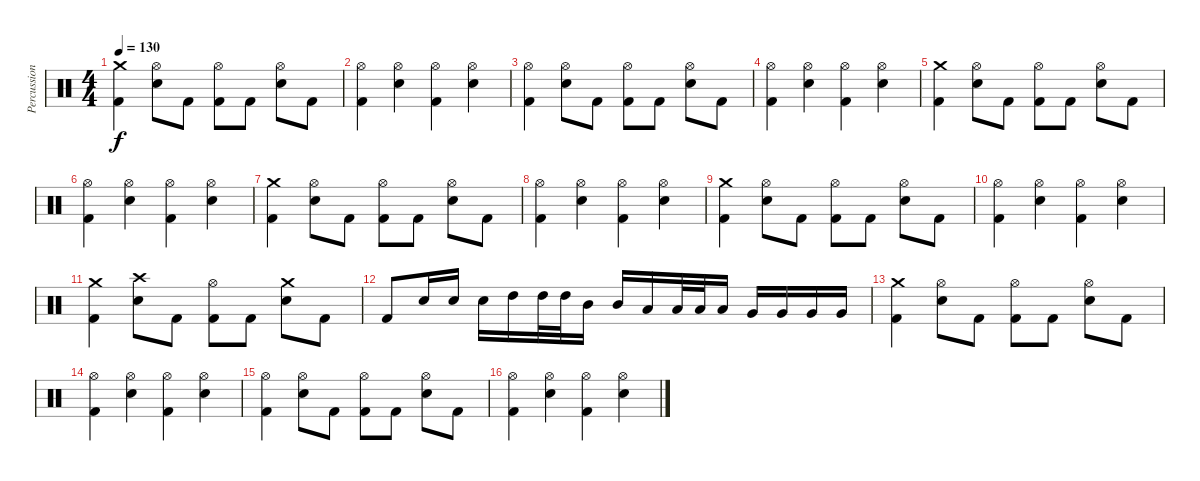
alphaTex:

\track ("Percussions" "Percussion") {instrument percussion}
\staff {score}
\articulation defaults
\ts (4 4)
\tempo 130
\clef neutral
\ks c
("Crash medium (hit)" "Kick (hit) 2").4{dy f} ("Hi-Hat (open)" "Electric Snare (hit)").8 "Kick (hit) 2".8 ("Hi-Hat (open)" "Kick (hit) 2").8 "Kick (hit) 2".8 ("Hi-Hat (open)" "Electric Snare (hit)").8 "Kick (hit) 2".8 |
("Hi-Hat (open)" "Kick (hit) 2").4 ("Hi-Hat (open)" "Electric Snare (hit)").4 ("Hi-Hat (open)" "Kick (hit) 2").4 ("Hi-Hat (open)" "Electric Snare (hit)").4 |
("Hi-Hat (open)" "Kick (hit) 2").4 ("Hi-Hat (open)" "Electric Snare (hit)").8 "Kick (hit) 2".8 ("Hi-Hat (open)" "Kick (hit) 2").8 "Kick (hit) 2".8 ("Hi-Hat (open)" "Electric Snare (hit)").8 "Kick (hit) 2".8 |
("Hi-Hat (open)" "Kick (hit) 2").4 ("Hi-Hat (open)" "Electric Snare (hit)").4 ("Hi-Hat (open)" "Kick (hit) 2").4 ("Hi-Hat (open)" "Electric Snare (hit)").4 |
("Crash medium (hit)" "Kick (hit) 2").4 ("Hi-Hat (open)" "Electric Snare (hit)").8 "Kick (hit) 2".8 ("Hi-Hat (open)" "Kick (hit) 2").8 "Kick (hit) 2".8 ("Hi-Hat (open)" "Electric Snare (hit)").8 "Kick (hit) 2".8 |
("Hi-Hat (open)" "Kick (hit) 2").4 ("Hi-Hat (open)" "Electric Snare (hit)").4 ("Hi-Hat (open)" "Kick (hit) 2").4 ("Hi-Hat (open)" "Electric Snare (hit)").4 |
("Crash medium (hit)" "Kick (hit) 2").4 ("Hi-Hat (open)" "Electric Snare (hit)").8 "Kick (hit) 2".8 ("Hi-Hat (open)" "Kick (hit) 2").8 "Kick (hit) 2".8 ("Hi-Hat (open)" "Electric Snare (hit)").8 "Kick (hit) 2".8 |
("Hi-Hat (open)" "Kick (hit) 2").4 ("Hi-Hat (open)" "Electric Snare (hit)").4 ("Hi-Hat (open)" "Kick (hit) 2").4 ("Hi-Hat (open)" "Electric Snare (hit)").4 |
("Crash medium (hit)" "Kick (hit) 2").4 ("Hi-Hat (open)" "Electric Snare (hit)").8 "Kick (hit) 2".8 ("Hi-Hat (open)" "Kick (hit) 2").8 "Kick (hit) 2".8 ("Hi-Hat (open)" "Electric Snare (hit)").8 "Kick (hit) 2".8 |
("Hi-Hat (open)" "Kick (hit) 2").4 ("Hi-Hat (open)" "Electric Snare (hit)").4 ("Hi-Hat (open)" "Kick (hit) 2").4 ("Hi-Hat (open)" "Electric Snare (hit)").4 |
("Crash medium (hit)" "Kick (hit) 2").4 ("Crash high (hit)" "Electric Snare (hit)").8 "Kick (hit) 2".8 ("Hi-Hat (open)" "Kick (hit) 2").8 "Kick (hit) 2".8 ("Crash medium (hit)" "Electric Snare (hit)").8 "Kick (hit) 2".8 |
"Kick (hit) 2".8 "Electric Snare (hit)".16 "Electric Snare (hit)".16 "Electric Snare (hit)".16 "High Tom (hit)".16 "High Tom (hit)".32 "High Tom (hit)".32 "Mid Tom (hit)".16 "Mid Tom (hit)".16 "Low Tom (hit)".16 "Low Tom (hit)".32 "Low Tom (hit)".32 "Low Tom (hit)".16 "Very Low Tom (hit)".16 "Very Low Tom (hit)".16 "Very Low Tom (hit)".16 "Very Low Tom (hit)".16 |
("Crash medium (hit)" "Kick (hit) 2").4 ("Hi-Hat (open)" "Electric Snare (hit)").8 "Kick (hit) 2".8 ("Hi-Hat (open)" "Kick (hit) 2").8 "Kick (hit) 2".8 ("Hi-Hat (open)" "Electric Snare (hit)").8 "Kick (hit) 2".8 |
("Hi-Hat (open)" "Kick (hit) 2").4 ("Hi-Hat (open)" "Electric Snare (hit)").4 ("Hi-Hat (open)" "Kick (hit) 2").4 ("Hi-Hat (open)" "Electric Snare (hit)").4 |
("Hi-Hat (open)" "Kick (hit) 2").4 ("Hi-Hat (open)" "Electric Snare (hit)").8 "Kick (hit) 2".8 ("Hi-Hat (open)" "Kick (hit) 2").8 "Kick (hit) 2".8 ("Hi-Hat (open)" "Electric Snare (hit)").8 "Kick (hit) 2".8 |
("Hi-Hat (open)" "Kick (hit) 2").4 ("Hi-Hat (open)" "Electric Snare (hit)").4 ("Hi-Hat (open)" "Kick (hit) 2").4 ("Hi-Hat (open)" "Electric Snare (hit)").4
